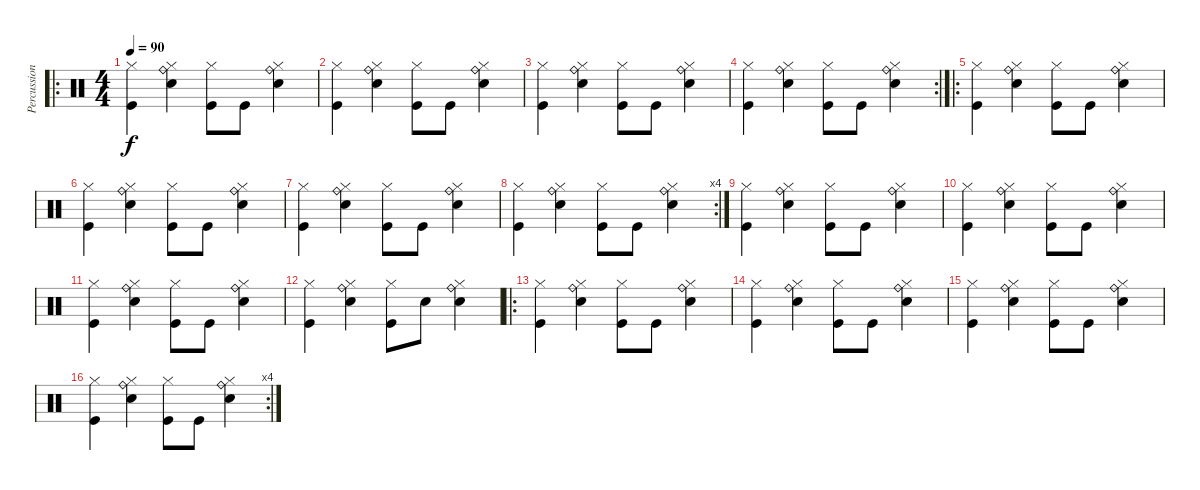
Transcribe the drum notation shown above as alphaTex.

\track ("Percussion" "Percussion") {instrument percussion}
\staff {score}
\articulation defaults
\ro
\ts (4 4)
\tempo 90
\clef neutral
\ks c
("Hi-Hat (closed)" "Kick (hit)").4{dy f} ("Hi-Hat (closed)" "Ride (bell)" "Snare (hit) 2").4 ("Hi-Hat (closed)" "Kick (hit)").8 "Kick (hit)".8 ("Hi-Hat (closed)" "Ride (bell)" "Snare (hit) 2").4 |
("Hi-Hat (closed)" "Kick (hit)").4 ("Hi-Hat (closed)" "Ride (bell)" "Snare (hit) 2").4 ("Hi-Hat (closed)" "Kick (hit)").8 "Kick (hit)".8 ("Hi-Hat (closed)" "Ride (bell)" "Snare (hit) 2").4 |
("Hi-Hat (closed)" "Kick (hit)").4 ("Hi-Hat (closed)" "Ride (bell)" "Snare (hit) 2").4 ("Hi-Hat (closed)" "Kick (hit)").8 "Kick (hit)".8 ("Hi-Hat (closed)" "Ride (bell)" "Snare (hit) 2").4 |
\rc 2
("Hi-Hat (closed)" "Kick (hit)").4 ("Hi-Hat (closed)" "Ride (bell)" "Snare (hit) 2").4 ("Hi-Hat (closed)" "Kick (hit)").8 "Kick (hit)".8 ("Hi-Hat (closed)" "Ride (bell)" "Snare (hit) 2").4 |
\ro
("Hi-Hat (closed)" "Kick (hit)").4 ("Hi-Hat (closed)" "Ride (bell)" "Snare (hit) 2").4 ("Hi-Hat (closed)" "Kick (hit)").8 "Kick (hit)".8 ("Hi-Hat (closed)" "Ride (bell)" "Snare (hit) 2").4 |
("Hi-Hat (closed)" "Kick (hit)").4 ("Hi-Hat (closed)" "Ride (bell)" "Snare (hit) 2").4 ("Hi-Hat (closed)" "Kick (hit)").8 "Kick (hit)".8 ("Hi-Hat (closed)" "Ride (bell)" "Snare (hit) 2").4 |
("Hi-Hat (closed)" "Kick (hit)").4 ("Hi-Hat (closed)" "Ride (bell)" "Snare (hit) 2").4 ("Hi-Hat (closed)" "Kick (hit)").8 "Kick (hit)".8 ("Hi-Hat (closed)" "Ride (bell)" "Snare (hit) 2").4 |
\rc 4
("Hi-Hat (closed)" "Kick (hit)").4 ("Hi-Hat (closed)" "Ride (bell)" "Snare (hit) 2").4 ("Hi-Hat (closed)" "Kick (hit)").8 "Kick (hit)".8 ("Hi-Hat (closed)" "Ride (bell)" "Snare (hit) 2").4 |
("Hi-Hat (closed)" "Kick (hit)").4 ("Hi-Hat (closed)" "Ride (bell)" "Snare (hit) 2").4 ("Hi-Hat (closed)" "Kick (hit)").8 "Kick (hit)".8 ("Hi-Hat (closed)" "Ride (bell)" "Snare (hit) 2").4 |
("Hi-Hat (closed)" "Kick (hit)").4 ("Hi-Hat (closed)" "Ride (bell)" "Snare (hit) 2").4 ("Hi-Hat (closed)" "Kick (hit)").8 "Kick (hit)".8 ("Hi-Hat (closed)" "Ride (bell)" "Snare (hit) 2").4 |
("Hi-Hat (closed)" "Kick (hit)").4 ("Hi-Hat (closed)" "Ride (bell)" "Snare (hit) 2").4 ("Hi-Hat (closed)" "Kick (hit)").8 "Kick (hit)".8 ("Hi-Hat (closed)" "Ride (bell)" "Snare (hit) 2").4 |
("Hi-Hat (closed)" "Kick (hit)").4 ("Hi-Hat (closed)" "Ride (bell)" "Snare (hit) 2").4 ("Hi-Hat (closed)" "Kick (hit)").8 "Snare (hit) 2".8 ("Hi-Hat (closed)" "Ride (bell)" "Snare (hit) 2").4 |
\ro
("Hi-Hat (closed)" "Kick (hit)").4 ("Hi-Hat (closed)" "Ride (bell)" "Snare (hit) 2").4 ("Hi-Hat (closed)" "Kick (hit)").8 "Kick (hit)".8 ("Hi-Hat (closed)" "Ride (bell)" "Snare (hit) 2").4 |
("Hi-Hat (closed)" "Kick (hit)").4 ("Hi-Hat (closed)" "Ride (bell)" "Snare (hit) 2").4 ("Hi-Hat (closed)" "Kick (hit)").8 "Kick (hit)".8 ("Hi-Hat (closed)" "Ride (bell)" "Snare (hit) 2").4 |
("Hi-Hat (closed)" "Kick (hit)").4 ("Hi-Hat (closed)" "Ride (bell)" "Snare (hit) 2").4 ("Hi-Hat (closed)" "Kick (hit)").8 "Kick (hit)".8 ("Hi-Hat (closed)" "Ride (bell)" "Snare (hit) 2").4 |
\rc 4
("Hi-Hat (closed)" "Kick (hit)").4 ("Hi-Hat (closed)" "Ride (bell)" "Snare (hit) 2").4 ("Hi-Hat (closed)" "Kick (hit)").8 "Kick (hit)".8 ("Hi-Hat (closed)" "Ride (bell)" "Snare (hit) 2").4
